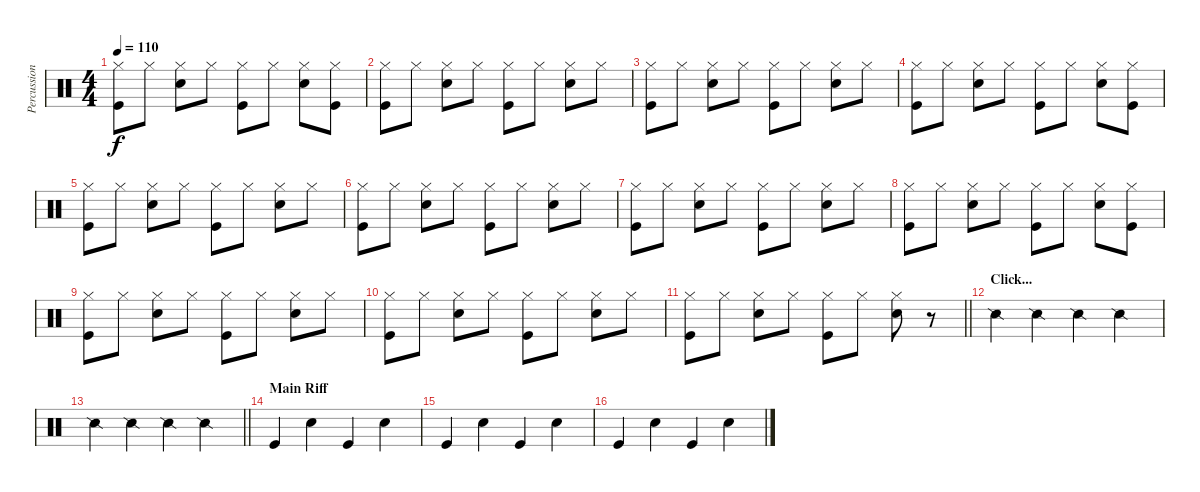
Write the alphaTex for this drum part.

\track ("Percussion" "Percussion") {instrument percussion}
\staff {score}
\articulation defaults
\ts (4 4)
\tempo 110
\clef neutral
\ks c
("Hi-Hat (closed)" "Kick (hit)").8{dy f} "Hi-Hat (closed)".8 ("Hi-Hat (closed)" "Snare (hit) 2").8 "Hi-Hat (closed)".8 ("Hi-Hat (closed)" "Kick (hit)").8 "Hi-Hat (closed)".8 ("Hi-Hat (closed)" "Snare (hit) 2").8 ("Hi-Hat (closed)" "Kick (hit)").8 |
("Hi-Hat (closed)" "Kick (hit)").8 "Hi-Hat (closed)".8 ("Hi-Hat (closed)" "Snare (hit) 2").8 "Hi-Hat (closed)".8 ("Hi-Hat (closed)" "Kick (hit)").8 "Hi-Hat (closed)".8 ("Hi-Hat (closed)" "Snare (hit) 2").8 "Hi-Hat (closed)".8 |
("Hi-Hat (closed)" "Kick (hit)").8 "Hi-Hat (closed)".8 ("Hi-Hat (closed)" "Snare (hit) 2").8 "Hi-Hat (closed)".8 ("Hi-Hat (closed)" "Kick (hit)").8 "Hi-Hat (closed)".8 ("Hi-Hat (closed)" "Snare (hit) 2").8 "Hi-Hat (closed)".8 |
("Hi-Hat (closed)" "Kick (hit)").8 "Hi-Hat (closed)".8 ("Hi-Hat (closed)" "Snare (hit) 2").8 "Hi-Hat (closed)".8 ("Hi-Hat (closed)" "Kick (hit)").8 "Hi-Hat (closed)".8 ("Hi-Hat (closed)" "Snare (hit) 2").8 ("Hi-Hat (closed)" "Kick (hit)").8 |
("Hi-Hat (closed)" "Kick (hit)").8 "Hi-Hat (closed)".8 ("Hi-Hat (closed)" "Snare (hit) 2").8 "Hi-Hat (closed)".8 ("Hi-Hat (closed)" "Kick (hit)").8 "Hi-Hat (closed)".8 ("Hi-Hat (closed)" "Snare (hit) 2").8 "Hi-Hat (closed)".8 |
("Hi-Hat (closed)" "Kick (hit)").8 "Hi-Hat (closed)".8 ("Hi-Hat (closed)" "Snare (hit) 2").8 "Hi-Hat (closed)".8 ("Hi-Hat (closed)" "Kick (hit)").8 "Hi-Hat (closed)".8 ("Hi-Hat (closed)" "Snare (hit) 2").8 "Hi-Hat (closed)".8 |
("Hi-Hat (closed)" "Kick (hit)").8 "Hi-Hat (closed)".8 ("Hi-Hat (closed)" "Snare (hit) 2").8 "Hi-Hat (closed)".8 ("Hi-Hat (closed)" "Kick (hit)").8 "Hi-Hat (closed)".8 ("Hi-Hat (closed)" "Snare (hit) 2").8 "Hi-Hat (closed)".8 |
("Hi-Hat (closed)" "Kick (hit)").8 "Hi-Hat (closed)".8 ("Hi-Hat (closed)" "Snare (hit) 2").8 "Hi-Hat (closed)".8 ("Hi-Hat (closed)" "Kick (hit)").8 "Hi-Hat (closed)".8 ("Hi-Hat (closed)" "Snare (hit) 2").8 ("Hi-Hat (closed)" "Kick (hit)").8 |
("Hi-Hat (closed)" "Kick (hit)").8 "Hi-Hat (closed)".8 ("Hi-Hat (closed)" "Snare (hit) 2").8 "Hi-Hat (closed)".8 ("Hi-Hat (closed)" "Kick (hit)").8 "Hi-Hat (closed)".8 ("Hi-Hat (closed)" "Snare (hit) 2").8 "Hi-Hat (closed)".8 |
("Hi-Hat (closed)" "Kick (hit)").8 "Hi-Hat (closed)".8 ("Hi-Hat (closed)" "Snare (hit) 2").8 "Hi-Hat (closed)".8 ("Hi-Hat (closed)" "Kick (hit)").8 "Hi-Hat (closed)".8 ("Hi-Hat (closed)" "Snare (hit) 2").8 "Hi-Hat (closed)".8 |
\barLineRight lightlight
("Hi-Hat (closed)" "Kick (hit)").8 "Hi-Hat (closed)".8 ("Hi-Hat (closed)" "Snare (hit) 2").8 "Hi-Hat (closed)".8 ("Hi-Hat (closed)" "Kick (hit)").8 "Hi-Hat (closed)".8 ("Hi-Hat (closed)" "Snare (hit) 2").8 r.8 |
\section ("" "Click...")
"Snare (side stick) 2".4 "Snare (side stick) 2".4 "Snare (side stick) 2".4 "Snare (side stick) 2".4 |
\barLineRight lightlight "Snare (side stick) 2".4 "Snare (side stick) 2".4 "Snare (side stick) 2".4 "Snare (side stick) 2".4
|
\section ("" "Main Riff")
"Kick (hit)".4 "Snare (hit) 2".4 "Kick (hit)".4 "Snare (hit) 2".4 |
"Kick (hit)".4 "Snare (hit) 2".4 "Kick (hit)".4 "Snare (hit) 2".4 |
"Kick (hit)".4 "Snare (hit) 2".4 "Kick (hit)".4 "Snare (hit) 2".4
